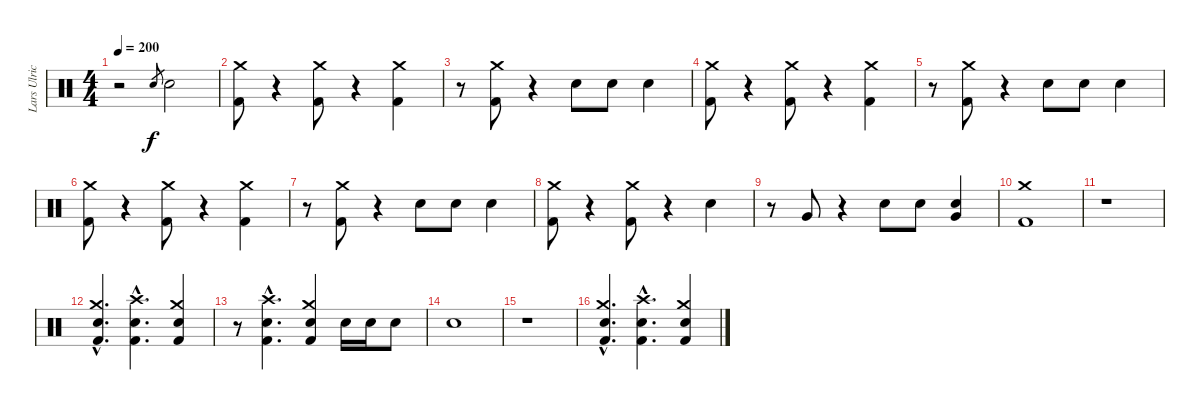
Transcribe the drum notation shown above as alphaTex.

\track ("Lars Ulrich" "Lars Ulric") {instrument percussion}
\staff {score}
\articulation defaults
\ts (4 4)
\tempo 200
\clef neutral
\ks c
r.2{dy f} "Electric Snare (hit)".8{gr} "Electric Snare (hit)".2 |
("Crash medium (hit)" "Kick (hit) 2").8 r.4 ("Crash medium (hit)" "Kick (hit) 2").8 r.4 ("Crash medium (hit)" "Kick (hit) 2").4 |
r.8 ("Crash medium (hit)" "Kick (hit) 2").8 r.4 "Electric Snare (hit)".8 "Electric Snare (hit)".8 "Electric Snare (hit)".4 |
("Crash medium (hit)" "Kick (hit) 2").8 r.4 ("Crash medium (hit)" "Kick (hit) 2").8 r.4 ("Crash medium (hit)" "Kick (hit) 2").4 |
r.8 ("Crash medium (hit)" "Kick (hit) 2").8 r.4 "Electric Snare (hit)".8 "Electric Snare (hit)".8 "Electric Snare (hit)".4 |
("Crash medium (hit)" "Kick (hit) 2").8 r.4 ("Crash medium (hit)" "Kick (hit) 2").8 r.4 ("Crash medium (hit)" "Kick (hit) 2").4 |
r.8 ("Crash medium (hit)" "Kick (hit) 2").8 r.4 "Electric Snare (hit)".8 "Electric Snare (hit)".8 "Electric Snare (hit)".4 |
("Crash medium (hit)" "Kick (hit) 2").8 r.4 ("Crash medium (hit)" "Kick (hit) 2").8 r.4 "Electric Snare (hit)".4 |
r.8 "Very Low Tom (hit)".8 r.4 "Electric Snare (hit)".8 "Electric Snare (hit)".8 ("Electric Snare (hit)" "Very Low Tom (hit)").4 |
("Crash medium (hit)" "Kick (hit) 2").1 |
r.1 |
("Crash medium (hit)"{hac} "Electric Snare (hit)"{hac} "Kick (hit) 2"{hac}).4{d} ("Crash high (hit)"{hac} "Electric Snare (hit)"{hac} "Kick (hit) 2"{hac}).4{d} ("Crash medium (hit)" "Electric Snare (hit)" "Kick (hit) 2").4 |
r.8 ("Crash high (hit)"{hac} "Electric Snare (hit)"{hac} "Kick (hit) 2"{hac}).4{d} ("Crash medium (hit)" "Electric Snare (hit)" "Kick (hit) 2").4 "Electric Snare (hit)".16 "Electric Snare (hit)".16 "Electric Snare (hit)".8 |
"Electric Snare (hit)".1 |
r.1 |
("Crash medium (hit)"{hac} "Electric Snare (hit)"{hac} "Kick (hit) 2"{hac}).4{d} ("Crash high (hit)"{hac} "Electric Snare (hit)"{hac} "Kick (hit) 2"{hac}).4{d} ("Crash medium (hit)" "Electric Snare (hit)" "Kick (hit) 2").4
